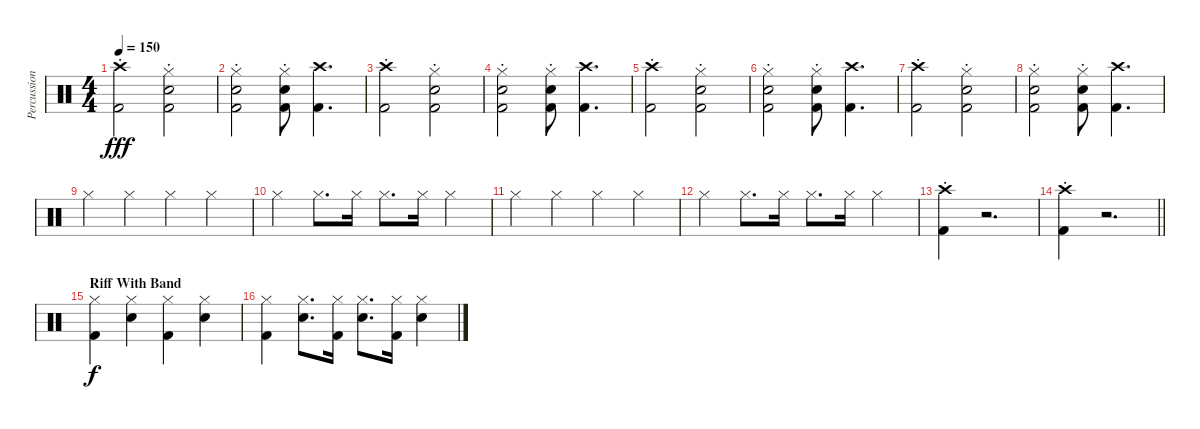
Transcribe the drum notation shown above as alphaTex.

\track ("Percussion" "Percussion") {instrument percussion}
\staff {score}
\articulation defaults
\ts (4 4)
\tempo 150
\clef neutral
\ks c
("Crash high (hit)" "Kick (hit) 2"{st}).2{dy fff} ("Snare (hit) 2" "Hi-Hat (closed)" "Kick (hit) 2"{st}).2 |
("Snare (hit) 2" "Hi-Hat (closed)" "Kick (hit) 2"{st}).2 ("Snare (hit) 2" "Hi-Hat (closed)" "Kick (hit) 2"{st}).8 ("Crash high (hit)" "Kick (hit) 2").4{d} |
("Crash high (hit)" "Kick (hit) 2"{st}).2 ("Snare (hit) 2" "Hi-Hat (closed)" "Kick (hit) 2"{st}).2 |
("Snare (hit) 2" "Hi-Hat (closed)" "Kick (hit) 2"{st}).2 ("Snare (hit) 2" "Hi-Hat (closed)" "Kick (hit) 2"{st}).8 ("Crash high (hit)" "Kick (hit) 2").4{d} |
("Crash high (hit)" "Kick (hit) 2"{st}).2 ("Snare (hit) 2" "Hi-Hat (closed)" "Kick (hit) 2"{st}).2 |
("Snare (hit) 2" "Hi-Hat (closed)" "Kick (hit) 2"{st}).2 ("Snare (hit) 2" "Hi-Hat (closed)" "Kick (hit) 2"{st}).8 ("Crash high (hit)" "Kick (hit) 2").4{d} |
("Crash high (hit)" "Kick (hit) 2"{st}).2 ("Snare (hit) 2" "Hi-Hat (closed)" "Kick (hit) 2"{st}).2 |
("Snare (hit) 2" "Hi-Hat (closed)" "Kick (hit) 2"{st}).2 ("Snare (hit) 2" "Hi-Hat (closed)" "Kick (hit) 2"{st}).8 ("Crash high (hit)" "Kick (hit) 2").4{d} |
"Hi-Hat (closed)".4 "Hi-Hat (closed)".4 "Hi-Hat (closed)".4 "Hi-Hat (closed)".4 |
"Hi-Hat (closed)".4 "Hi-Hat (closed)".8{d} "Hi-Hat (closed)".16 "Hi-Hat (closed)".8{d} "Hi-Hat (closed)".16 "Hi-Hat (closed)".4 |
"Hi-Hat (closed)".4 "Hi-Hat (closed)".4 "Hi-Hat (closed)".4 "Hi-Hat (closed)".4 |
"Hi-Hat (closed)".4 "Hi-Hat (closed)".8{d} "Hi-Hat (closed)".16 "Hi-Hat (closed)".8{d} "Hi-Hat (closed)".16 "Hi-Hat (closed)".4 |
("Crash high (hit)" "Kick (hit) 2"{st}).4 r.2{d} |
\barLineRight lightlight
("Crash high (hit)" "Kick (hit) 2"{st}).4 r.2{d} |
\section ("" "Riff With Band")
("Kick (hit) 2" "Hi-Hat (closed)").4{dy f} ("Snare (hit) 2" "Hi-Hat (closed)").4 ("Kick (hit) 2" "Hi-Hat (closed)").4 ("Snare (hit) 2" "Hi-Hat (closed)").4 |
("Kick (hit) 2" "Hi-Hat (closed)").4 ("Snare (hit) 2" "Hi-Hat (closed)").8{d} ("Kick (hit) 2" "Hi-Hat (closed)").16 ("Snare (hit) 2" "Hi-Hat (closed)").8{d} ("Kick (hit) 2" "Hi-Hat (closed)").16 ("Snare (hit) 2" "Hi-Hat (closed)").4
